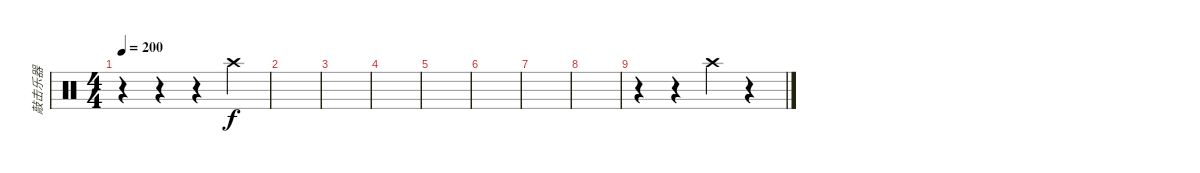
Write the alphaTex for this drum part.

\track ("敲击乐器" "敲击乐器") {instrument percussion}
\staff {score}
\articulation defaults
\ts (4 4)
\tempo 200
\clef neutral
\ks c
r.4{dy f} r.4 r.4 "Crash high (hit)".4 |
|
|
|
|
|
|
|
r.4 r.4 "Crash high (hit)".4 r.4
